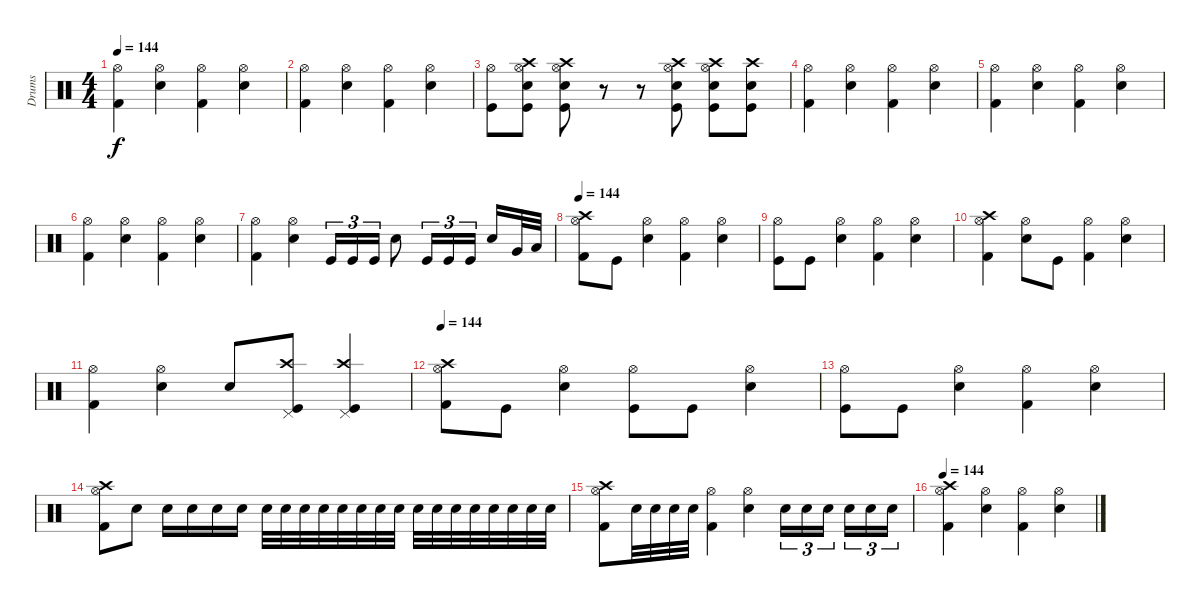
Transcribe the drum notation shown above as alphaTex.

\track ("Drums" "Drums") {instrument percussion}
\staff {score}
\articulation defaults
\ts (4 4)
\tempo 144
\clef neutral
\ks c
("Hi-Hat (open)" "Kick (hit) 2").4{dy f} ("Hi-Hat (open)" "Snare (hit) 2").4 ("Hi-Hat (open)" "Kick (hit) 2").4 ("Hi-Hat (open)" "Snare (hit) 2").4 |
("Hi-Hat (open)" "Kick (hit) 2").4 ("Hi-Hat (open)" "Snare (hit) 2").4 ("Hi-Hat (open)" "Kick (hit) 2").4 ("Hi-Hat (open)" "Snare (hit) 2").4 |
("Hi-Hat (open)" "Kick (hit)").8 ("Crash high (hit)" "Kick (hit)" "Snare (hit) 2" "Hi-Hat (open)").8 ("Crash high (hit)" "Kick (hit)" "Snare (hit) 2" "Hi-Hat (open)").8 r.8 r.8 ("Crash high (hit)" "Snare (hit) 2" "Kick (hit)" "Hi-Hat (open)").8 ("Crash high (hit)" "Snare (hit) 2" "Kick (hit)" "Hi-Hat (open)").8 ("Crash high (hit)" "Kick (hit)" "Snare (hit) 2").8 |
("Hi-Hat (open)" "Kick (hit) 2").4 ("Hi-Hat (open)" "Snare (hit) 2").4 ("Hi-Hat (open)" "Kick (hit) 2").4 ("Hi-Hat (open)" "Snare (hit) 2").4 |
("Hi-Hat (open)" "Kick (hit) 2").4 ("Hi-Hat (open)" "Snare (hit) 2").4 ("Hi-Hat (open)" "Kick (hit) 2").4 ("Hi-Hat (open)" "Snare (hit) 2").4 |
("Hi-Hat (open)" "Kick (hit) 2").4 ("Hi-Hat (open)" "Snare (hit) 2").4 ("Hi-Hat (open)" "Kick (hit) 2").4 ("Hi-Hat (open)" "Snare (hit) 2").4 |
("Hi-Hat (open)" "Kick (hit) 2").4 ("Hi-Hat (open)" "Snare (hit) 2").4 "Kick (hit)".16{tu (3 2)} "Kick (hit)".16{tu (3 2)} "Kick (hit)".16{tu (3 2)} "Snare (hit) 2".8 "Kick (hit)".16{tu (3 2)} "Kick (hit)".16{tu (3 2)} "Kick (hit)".16{tu (3 2) beam splitsecondary} "Snare (hit) 2".16 "Very Low Tom (hit)".32 "Low Floor Tom (hit)".32 |
\tempo 144
("Hi-Hat (open)" "Kick (hit) 2" "Crash high (hit)").8 "Kick (hit)".8 ("Hi-Hat (open)" "Snare (hit) 2").4 ("Hi-Hat (open)" "Kick (hit) 2").4 ("Hi-Hat (open)" "Snare (hit) 2").4 |
("Hi-Hat (open)" "Kick (hit)").8 "Kick (hit)".8 ("Hi-Hat (open)" "Snare (hit) 2").4 ("Hi-Hat (open)" "Kick (hit) 2").4 ("Hi-Hat (open)" "Snare (hit) 2").4 |
("Hi-Hat (open)" "Kick (hit) 2" "Crash high (hit)").4 ("Hi-Hat (open)" "Snare (hit) 2").8 "Kick (hit)".8 ("Hi-Hat (open)" "Kick (hit) 2").4 ("Hi-Hat (open)" "Snare (hit) 2").4 |
("Hi-Hat (open)" "Kick (hit) 2").4 ("Hi-Hat (open)" "Snare (hit) 2").4 "Snare (hit) 2".8 ("Pedal Hi-Hat (hit)" "Crash high (hit)" "Kick (hit)").8 ("Pedal Hi-Hat (hit)" "Crash high (hit)" "Kick (hit)").4 |
\tempo 144
("Hi-Hat (open)" "Kick (hit) 2" "Crash high (hit)").8 "Kick (hit)".8 ("Hi-Hat (open)" "Snare (hit) 2").4 ("Hi-Hat (open)" "Kick (hit)").8 "Kick (hit)".8 ("Hi-Hat (open)" "Snare (hit) 2").4 |
("Hi-Hat (open)" "Kick (hit)").8 "Kick (hit)".8 ("Hi-Hat (open)" "Snare (hit) 2").4 ("Hi-Hat (open)" "Kick (hit) 2").4 ("Hi-Hat (open)" "Snare (hit) 2").4 |
("Hi-Hat (open)" "Kick (hit) 2" "Crash high (hit)").8 "Snare (hit) 2".8 "Snare (hit) 2".16 "Snare (hit) 2".16 "Snare (hit) 2".16 "Snare (hit) 2".16 "Snare (hit) 2".32 "Snare (hit) 2".32 "Snare (hit) 2".32 "Snare (hit) 2".32 "Snare (hit) 2".32 "Snare (hit) 2".32 "Snare (hit) 2".32 "Snare (hit) 2".32 "Snare (hit) 2".32 "Snare (hit) 2".32 "Snare (hit) 2".32 "Snare (hit) 2".32 "Snare (hit) 2".32 "Snare (hit) 2".32 "Snare (hit) 2".32 "Snare (hit) 2".32 |
("Hi-Hat (open)" "Kick (hit) 2" "Crash high (hit)").8 "Snare (hit) 2".32 "Snare (hit) 2".32 "Snare (hit) 2".32 "Snare (hit) 2".32 ("Hi-Hat (open)" "Kick (hit) 2").4 ("Hi-Hat (open)" "Snare (hit) 2").4 "Snare (hit) 2".16{tu (3 2)} "Snare (hit) 2".16{tu (3 2)} "Snare (hit) 2".16{tu (3 2) beam splitsecondary} "Snare (hit) 2".16{tu (3 2)} "Snare (hit) 2".16{tu (3 2)} "Snare (hit) 2".16{tu (3 2)} |
\tempo 144
("Hi-Hat (open)" "Kick (hit) 2" "Crash high (hit)").4 ("Hi-Hat (open)" "Snare (hit) 2").4 ("Hi-Hat (open)" "Kick (hit) 2").4 ("Hi-Hat (open)" "Snare (hit) 2").4
